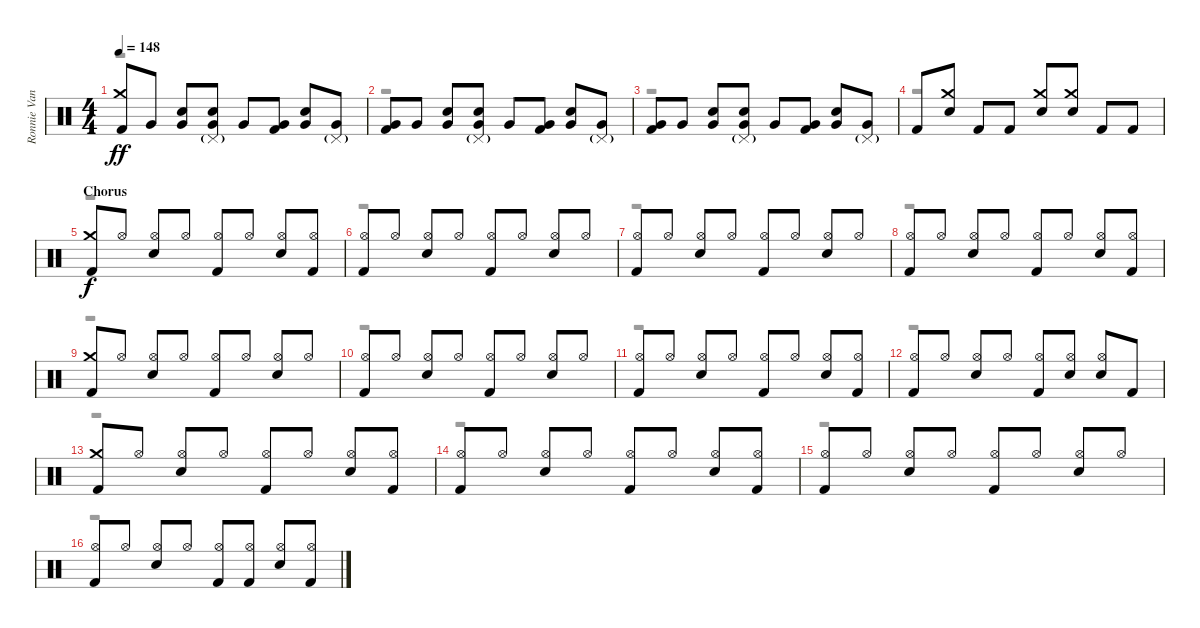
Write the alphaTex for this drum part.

\track ("Ronnie Vannucci Jr. - Drums" "Ronnie Van") {instrument percussion}
\staff {score}
\articulation defaults
\voice
\ts (4 4)
\tempo 148
\clef neutral
\ks c
("Crash medium (hit)" "Kick (hit) 2").8{dy ff} "Very Low Tom (hit)".8 ("Very Low Tom (hit)" "Electric Snare (hit)").8 ("Very Low Tom (hit)" "Pedal Hi-Hat (hit)"{g} "Electric Snare (hit)").8 "Very Low Tom (hit)".8 ("Very Low Tom (hit)" "Kick (hit) 2").8 ("Very Low Tom (hit)" "Electric Snare (hit)").8 ("Very Low Tom (hit)" "Pedal Hi-Hat (hit)"{g}).8 |
("Very Low Tom (hit)" "Kick (hit) 2").8 "Very Low Tom (hit)".8 ("Very Low Tom (hit)" "Electric Snare (hit)").8 ("Very Low Tom (hit)" "Pedal Hi-Hat (hit)"{g} "Electric Snare (hit)").8 "Very Low Tom (hit)".8 ("Very Low Tom (hit)" "Kick (hit) 2").8 ("Very Low Tom (hit)" "Electric Snare (hit)").8 ("Very Low Tom (hit)" "Pedal Hi-Hat (hit)"{g}).8 |
("Very Low Tom (hit)" "Kick (hit) 2").8 "Very Low Tom (hit)".8 ("Very Low Tom (hit)" "Electric Snare (hit)").8 ("Very Low Tom (hit)" "Pedal Hi-Hat (hit)"{g} "Electric Snare (hit)").8 "Very Low Tom (hit)".8 ("Very Low Tom (hit)" "Kick (hit) 2").8 ("Very Low Tom (hit)" "Electric Snare (hit)").8 ("Very Low Tom (hit)" "Pedal Hi-Hat (hit)"{g}).8 |
"Kick (hit) 2".8 ("Crash medium (hit)" "Electric Snare (hit)").8 "Kick (hit) 2".8 "Kick (hit) 2".8 ("Crash medium (hit)" "Electric Snare (hit)").8 ("Crash medium (hit)" "Electric Snare (hit)").8 "Kick (hit) 2".8 "Kick (hit) 2".8 |
\section ("" "Chorus")
("Crash medium (hit)" "Kick (hit) 2").8{dy f} "Hi-Hat (open)".8 ("Hi-Hat (open)" "Electric Snare (hit)").8 "Hi-Hat (open)".8 ("Hi-Hat (open)" "Kick (hit) 2").8 "Hi-Hat (open)".8 ("Hi-Hat (open)" "Electric Snare (hit)").8 ("Hi-Hat (open)" "Kick (hit) 2").8 |
("Hi-Hat (open)" "Kick (hit) 2").8 "Hi-Hat (open)".8 ("Hi-Hat (open)" "Electric Snare (hit)").8 "Hi-Hat (open)".8 ("Hi-Hat (open)" "Kick (hit) 2").8 "Hi-Hat (open)".8 ("Hi-Hat (open)" "Electric Snare (hit)").8 "Hi-Hat (open)".8 |
("Hi-Hat (open)" "Kick (hit) 2").8 "Hi-Hat (open)".8 ("Hi-Hat (open)" "Electric Snare (hit)").8 "Hi-Hat (open)".8 ("Hi-Hat (open)" "Kick (hit) 2").8 "Hi-Hat (open)".8 ("Hi-Hat (open)" "Electric Snare (hit)").8 "Hi-Hat (open)".8 |
("Hi-Hat (open)" "Kick (hit) 2").8 "Hi-Hat (open)".8 ("Hi-Hat (open)" "Electric Snare (hit)").8 "Hi-Hat (open)".8 ("Hi-Hat (open)" "Kick (hit) 2").8 "Hi-Hat (open)".8 ("Hi-Hat (open)" "Electric Snare (hit)").8 ("Hi-Hat (open)" "Kick (hit) 2").8 |
("Crash medium (hit)" "Kick (hit) 2").8 "Hi-Hat (open)".8 ("Hi-Hat (open)" "Electric Snare (hit)").8 "Hi-Hat (open)".8 ("Hi-Hat (open)" "Kick (hit) 2").8 "Hi-Hat (open)".8 ("Hi-Hat (open)" "Electric Snare (hit)").8 "Hi-Hat (open)".8 |
("Hi-Hat (open)" "Kick (hit) 2").8 "Hi-Hat (open)".8 ("Hi-Hat (open)" "Electric Snare (hit)").8 "Hi-Hat (open)".8 ("Hi-Hat (open)" "Kick (hit) 2").8 "Hi-Hat (open)".8 ("Hi-Hat (open)" "Electric Snare (hit)").8 "Hi-Hat (open)".8 |
("Hi-Hat (open)" "Kick (hit) 2").8 "Hi-Hat (open)".8 ("Hi-Hat (open)" "Electric Snare (hit)").8 "Hi-Hat (open)".8 ("Hi-Hat (open)" "Kick (hit) 2").8 "Hi-Hat (open)".8 ("Hi-Hat (open)" "Electric Snare (hit)").8 ("Hi-Hat (open)" "Kick (hit) 2").8 |
("Hi-Hat (open)" "Kick (hit) 2").8 "Hi-Hat (open)".8 ("Hi-Hat (open)" "Electric Snare (hit)").8 "Hi-Hat (open)".8 ("Hi-Hat (open)" "Kick (hit) 2").8 ("Hi-Hat (open)" "Electric Snare (hit)").8 ("Hi-Hat (open)" "Electric Snare (hit)").8 "Kick (hit) 2".8 |
("Crash medium (hit)" "Kick (hit) 2").8 "Hi-Hat (open)".8 ("Hi-Hat (open)" "Electric Snare (hit)").8 "Hi-Hat (open)".8 ("Hi-Hat (open)" "Kick (hit) 2").8 "Hi-Hat (open)".8 ("Hi-Hat (open)" "Electric Snare (hit)").8 ("Hi-Hat (open)" "Kick (hit) 2").8 |
("Hi-Hat (open)" "Kick (hit) 2").8 "Hi-Hat (open)".8 ("Hi-Hat (open)" "Electric Snare (hit)").8 "Hi-Hat (open)".8 ("Hi-Hat (open)" "Kick (hit) 2").8 "Hi-Hat (open)".8 ("Hi-Hat (open)" "Electric Snare (hit)").8 ("Hi-Hat (open)" "Kick (hit) 2").8 |
("Hi-Hat (open)" "Kick (hit) 2").8 "Hi-Hat (open)".8 ("Hi-Hat (open)" "Electric Snare (hit)").8 "Hi-Hat (open)".8 ("Hi-Hat (open)" "Kick (hit) 2").8 "Hi-Hat (open)".8 ("Hi-Hat (open)" "Electric Snare (hit)").8 "Hi-Hat (open)".8 |
("Hi-Hat (open)" "Kick (hit) 2").8 "Hi-Hat (open)".8 ("Hi-Hat (open)" "Electric Snare (hit)").8 "Hi-Hat (open)".8 ("Hi-Hat (open)" "Kick (hit) 2").8 ("Hi-Hat (open)" "Kick (hit) 2").8 ("Hi-Hat (open)" "Electric Snare (hit)").8 ("Hi-Hat (open)" "Kick (hit) 2").8
\voice
\clef neutral
\ottava regular
\simile none
\ks c
r.1{dy f} |
r.1 |
r.1 |
r.1 |
r.1 |
r.1 |
r.1 |
r.1 |
r.1 |
r.1 |
r.1 |
r.1 |
r.1 |
r.1 |
r.1 |
r.1
